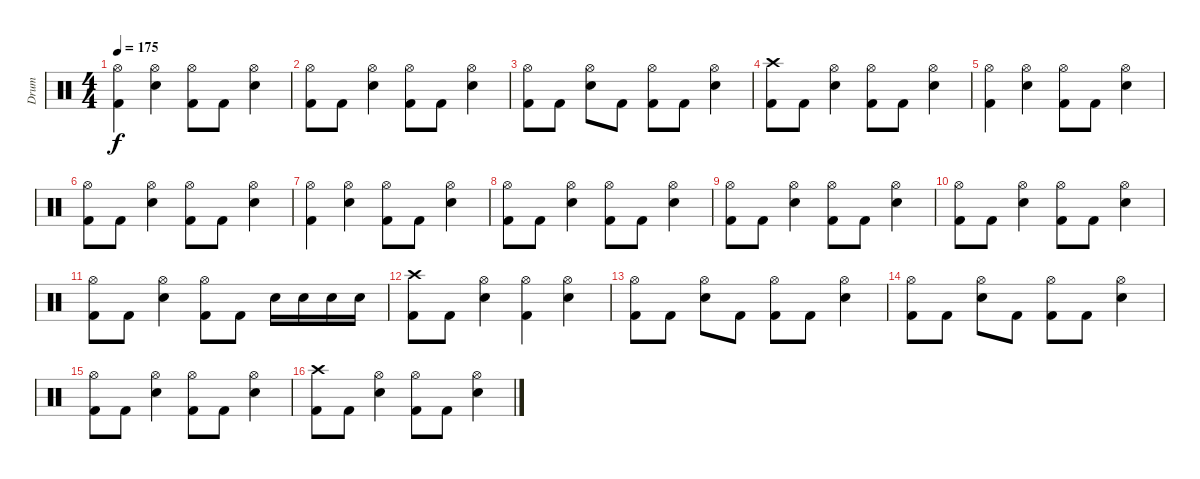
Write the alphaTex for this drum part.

\track ("Drum" "Drum") {instrument percussion}
\staff {score}
\articulation defaults
\ts (4 4)
\tempo 175
\clef neutral
\ks c
("Hi-Hat (open)" "Kick (hit) 2").4{dy f} ("Hi-Hat (open)" "Electric Snare (hit)").4 ("Hi-Hat (open)" "Kick (hit) 2").8 "Kick (hit) 2".8 ("Hi-Hat (open)" "Electric Snare (hit)").4 |
("Hi-Hat (open)" "Kick (hit) 2").8 "Kick (hit) 2".8 ("Hi-Hat (open)" "Electric Snare (hit)").4 ("Hi-Hat (open)" "Kick (hit) 2").8 "Kick (hit) 2".8 ("Hi-Hat (open)" "Electric Snare (hit)").4 |
("Hi-Hat (open)" "Kick (hit) 2").8 "Kick (hit) 2".8 ("Hi-Hat (open)" "Electric Snare (hit)").8 "Kick (hit) 2".8 ("Hi-Hat (open)" "Kick (hit) 2").8 "Kick (hit) 2".8 ("Hi-Hat (open)" "Electric Snare (hit)").4 |
("Crash high (hit)" "Kick (hit) 2").8 "Kick (hit) 2".8 ("Hi-Hat (open)" "Electric Snare (hit)").4 ("Hi-Hat (open)" "Kick (hit) 2").8 "Kick (hit) 2".8 ("Hi-Hat (open)" "Electric Snare (hit)").4 |
("Hi-Hat (open)" "Kick (hit) 2").4 ("Hi-Hat (open)" "Electric Snare (hit)").4 ("Hi-Hat (open)" "Kick (hit) 2").8 "Kick (hit) 2".8 ("Hi-Hat (open)" "Electric Snare (hit)").4 |
("Hi-Hat (open)" "Kick (hit) 2").8 "Kick (hit) 2".8 ("Hi-Hat (open)" "Electric Snare (hit)").4 ("Hi-Hat (open)" "Kick (hit) 2").8 "Kick (hit) 2".8 ("Hi-Hat (open)" "Electric Snare (hit)").4 |
("Hi-Hat (open)" "Kick (hit) 2").4 ("Hi-Hat (open)" "Electric Snare (hit)").4 ("Hi-Hat (open)" "Kick (hit) 2").8 "Kick (hit) 2".8 ("Hi-Hat (open)" "Electric Snare (hit)").4 |
("Hi-Hat (open)" "Kick (hit) 2").8 "Kick (hit) 2".8 ("Hi-Hat (open)" "Electric Snare (hit)").4 ("Hi-Hat (open)" "Kick (hit) 2").8 "Kick (hit) 2".8 ("Hi-Hat (open)" "Electric Snare (hit)").4 |
("Hi-Hat (open)" "Kick (hit) 2").8 "Kick (hit) 2".8 ("Hi-Hat (open)" "Electric Snare (hit)").4 ("Hi-Hat (open)" "Kick (hit) 2").8 "Kick (hit) 2".8 ("Hi-Hat (open)" "Electric Snare (hit)").4 |
("Hi-Hat (open)" "Kick (hit) 2").8 "Kick (hit) 2".8 ("Hi-Hat (open)" "Electric Snare (hit)").4 ("Hi-Hat (open)" "Kick (hit) 2").8 "Kick (hit) 2".8 ("Hi-Hat (open)" "Electric Snare (hit)").4 |
("Hi-Hat (open)" "Kick (hit) 2").8 "Kick (hit) 2".8 ("Hi-Hat (open)" "Electric Snare (hit)").4 ("Hi-Hat (open)" "Kick (hit) 2").8 "Kick (hit) 2".8 "Electric Snare (hit)".16 "Electric Snare (hit)".16 "Electric Snare (hit)".16 "Electric Snare (hit)".16 |
("Crash high (hit)" "Kick (hit) 2").8 "Kick (hit) 2".8 ("Hi-Hat (open)" "Electric Snare (hit)").4 ("Hi-Hat (open)" "Kick (hit) 2").4 ("Hi-Hat (open)" "Electric Snare (hit)").4 |
("Hi-Hat (open)" "Kick (hit) 2").8 "Kick (hit) 2".8 ("Hi-Hat (open)" "Electric Snare (hit)").8 "Kick (hit) 2".8 ("Hi-Hat (open)" "Kick (hit) 2").8 "Kick (hit) 2".8 ("Hi-Hat (open)" "Electric Snare (hit)").4 |
("Hi-Hat (open)" "Kick (hit) 2").8 "Kick (hit) 2".8 ("Hi-Hat (open)" "Electric Snare (hit)").8 "Kick (hit) 2".8 ("Hi-Hat (open)" "Kick (hit) 2").8 "Kick (hit) 2".8 ("Hi-Hat (open)" "Electric Snare (hit)").4 |
("Hi-Hat (open)" "Kick (hit) 2").8 "Kick (hit) 2".8 ("Hi-Hat (open)" "Electric Snare (hit)").4 ("Hi-Hat (open)" "Kick (hit) 2").8 "Kick (hit) 2".8 ("Hi-Hat (open)" "Electric Snare (hit)").4 |
("Crash high (hit)" "Kick (hit) 2").8 "Kick (hit) 2".8 ("Hi-Hat (open)" "Electric Snare (hit)").4 ("Hi-Hat (open)" "Kick (hit) 2").8 "Kick (hit) 2".8 ("Hi-Hat (open)" "Electric Snare (hit)").4
